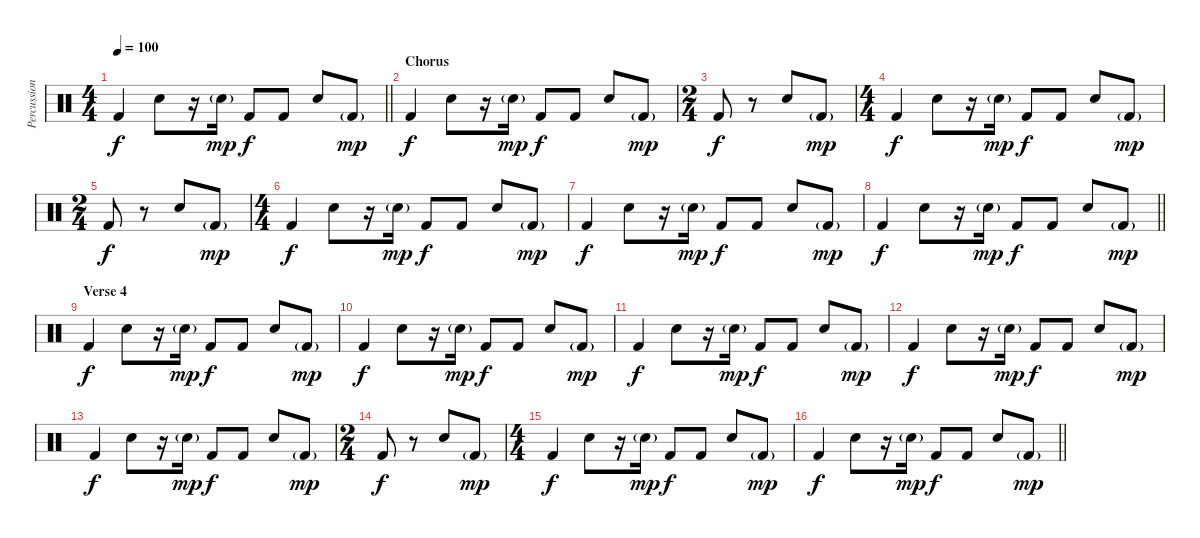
\track ("Percussion" "Percussion") {instrument percussion}
\staff {score}
\articulation defaults
\ts (4 4)
\tempo 100
\clef neutral
\barLineRight lightlight
\ks c "Kick (hit) 2".4{dy f} "Snare (hit) 2".8
r.16 "Snare (hit) 2"{g}.16{dy mp} "Kick (hit) 2".8{dy f} "Kick (hit) 2".8 "Snare (hit) 2".8 "Kick (hit) 2"{g}.8{dy mp} |
\section ("" "Chorus")
"Kick (hit) 2".4{dy f} "Snare (hit) 2".8 r.16 "Snare (hit) 2"{g}.16{dy mp} "Kick (hit) 2".8{dy f} "Kick (hit) 2".8 "Snare (hit) 2".8 "Kick (hit) 2"{g}.8{dy mp} |
\ts (2 4)
"Kick (hit) 2".8{dy f} r.8 "Snare (hit) 2".8 "Kick (hit) 2"{g}.8{dy mp} |
\ts (4 4)
"Kick (hit) 2".4{dy f} "Snare (hit) 2".8 r.16 "Snare (hit) 2"{g}.16{dy mp} "Kick (hit) 2".8{dy f} "Kick (hit) 2".8 "Snare (hit) 2".8 "Kick (hit) 2"{g}.8{dy mp} |
\ts (2 4)
"Kick (hit) 2".8{dy f} r.8 "Snare (hit) 2".8 "Kick (hit) 2"{g}.8{dy mp} |
\ts (4 4)
"Kick (hit) 2".4{dy f} "Snare (hit) 2".8 r.16 "Snare (hit) 2"{g}.16{dy mp} "Kick (hit) 2".8{dy f} "Kick (hit) 2".8 "Snare (hit) 2".8 "Kick (hit) 2"{g}.8{dy mp} |
"Kick (hit) 2".4{dy f} "Snare (hit) 2".8 r.16 "Snare (hit) 2"{g}.16{dy mp} "Kick (hit) 2".8{dy f} "Kick (hit) 2".8 "Snare (hit) 2".8 "Kick (hit) 2"{g}.8{dy mp} |
\barLineRight lightlight "Kick (hit) 2".4{dy f} "Snare (hit) 2".8
r.16 "Snare (hit) 2"{g}.16{dy mp} "Kick (hit) 2".8{dy f} "Kick (hit) 2".8 "Snare (hit) 2".8 "Kick (hit) 2"{g}.8{dy mp} |
\section ("" "Verse 4")
"Kick (hit) 2".4{dy f} "Snare (hit) 2".8 r.16 "Snare (hit) 2"{g}.16{dy mp} "Kick (hit) 2".8{dy f} "Kick (hit) 2".8 "Snare (hit) 2".8 "Kick (hit) 2"{g}.8{dy mp} |
"Kick (hit) 2".4{dy f} "Snare (hit) 2".8 r.16 "Snare (hit) 2"{g}.16{dy mp} "Kick (hit) 2".8{dy f} "Kick (hit) 2".8 "Snare (hit) 2".8 "Kick (hit) 2"{g}.8{dy mp} |
"Kick (hit) 2".4{dy f} "Snare (hit) 2".8 r.16 "Snare (hit) 2"{g}.16{dy mp} "Kick (hit) 2".8{dy f} "Kick (hit) 2".8 "Snare (hit) 2".8 "Kick (hit) 2"{g}.8{dy mp} |
"Kick (hit) 2".4{dy f} "Snare (hit) 2".8 r.16 "Snare (hit) 2"{g}.16{dy mp} "Kick (hit) 2".8{dy f} "Kick (hit) 2".8 "Snare (hit) 2".8 "Kick (hit) 2"{g}.8{dy mp} |
"Kick (hit) 2".4{dy f} "Snare (hit) 2".8 r.16 "Snare (hit) 2"{g}.16{dy mp} "Kick (hit) 2".8{dy f} "Kick (hit) 2".8 "Snare (hit) 2".8 "Kick (hit) 2"{g}.8{dy mp} |
\ts (2 4)
"Kick (hit) 2".8{dy f} r.8 "Snare (hit) 2".8 "Kick (hit) 2"{g}.8{dy mp} |
\ts (4 4)
"Kick (hit) 2".4{dy f} "Snare (hit) 2".8 r.16 "Snare (hit) 2"{g}.16{dy mp} "Kick (hit) 2".8{dy f} "Kick (hit) 2".8 "Snare (hit) 2".8 "Kick (hit) 2"{g}.8{dy mp} |
\barLineRight lightlight "Kick (hit) 2".4{dy f} "Snare (hit) 2".8
r.16 "Snare (hit) 2"{g}.16{dy mp} "Kick (hit) 2".8{dy f} "Kick (hit) 2".8 "Snare (hit) 2".8 "Kick (hit) 2"{g}.8{dy mp}
